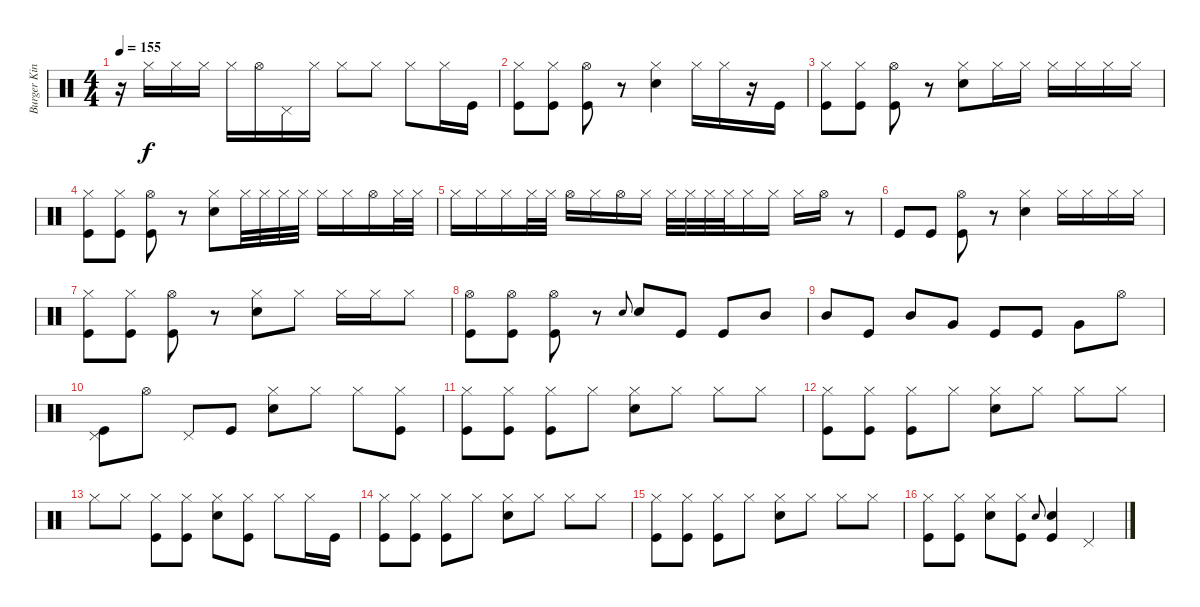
\track ("Burger King" "Burger Kin") {instrument percussion}
\staff {score}
\articulation defaults
\ts (4 4)
\tempo 155
\clef neutral
\ks c
r.16{dy f} "Hi-Hat (closed)".16 "Hi-Hat (closed)".16 "Hi-Hat (closed)".16 "Hi-Hat (closed)".16 "Hi-Hat (open)".16 "Pedal Hi-Hat (hit)".16 "Hi-Hat (closed)".16 "Hi-Hat (closed)".8 "Hi-Hat (closed)".8 "Hi-Hat (closed)".8 "Hi-Hat (closed)".16 "Kick (hit)".16 |
("Hi-Hat (closed)" "Kick (hit)").8 ("Kick (hit)" "Hi-Hat (closed)").8 ("Kick (hit)" "Hi-Hat (open)").8 r.8 ("Snare (hit) 2" "Hi-Hat (closed)").4 "Hi-Hat (closed)".16 "Hi-Hat (closed)".16 r.16 "Kick (hit)".16 |
("Kick (hit)" "Hi-Hat (closed)").8 ("Kick (hit)" "Hi-Hat (closed)").8 ("Kick (hit)" "Hi-Hat (open)").8 r.8 ("Snare (hit) 2" "Hi-Hat (closed)").8 "Hi-Hat (closed)".16 "Hi-Hat (closed)".16 "Hi-Hat (closed)".16 "Hi-Hat (closed)".16 "Hi-Hat (closed)".16 "Hi-Hat (closed)".16 |
("Kick (hit)" "Hi-Hat (closed)").8 ("Kick (hit)" "Hi-Hat (closed)").8 ("Kick (hit)" "Hi-Hat (open)").8 r.8 ("Snare (hit) 2" "Hi-Hat (closed)").8 "Hi-Hat (closed)".32 "Hi-Hat (closed)".32 "Hi-Hat (closed)".32 "Hi-Hat (closed)".32 "Hi-Hat (closed)".16 "Hi-Hat (closed)".16 "Hi-Hat (open)".16 "Hi-Hat (closed)".32 "Hi-Hat (closed)".32 |
"Hi-Hat (closed)".16 "Hi-Hat (closed)".16 "Hi-Hat (closed)".16 "Hi-Hat (closed)".32 "Hi-Hat (closed)".32 "Hi-Hat (open)".16 "Hi-Hat (closed)".16 "Hi-Hat (open)".16 "Hi-Hat (closed)".16 "Hi-Hat (closed)".32 "Hi-Hat (closed)".32 "Hi-Hat (closed)".32 "Hi-Hat (closed)".32 "Hi-Hat (closed)".16 "Hi-Hat (closed)".16 "Hi-Hat (closed)".16 "Hi-Hat (open)".16 r.8 |
"Kick (hit)".8 "Kick (hit)".8 ("Kick (hit)" "Hi-Hat (open)").8 r.8 ("Hi-Hat (closed)" "Snare (hit) 2").4 "Hi-Hat (closed)".16 "Hi-Hat (closed)".16 "Hi-Hat (closed)".16 "Hi-Hat (closed)".16 |
("Hi-Hat (closed)" "Kick (hit)").8 ("Hi-Hat (closed)" "Kick (hit)").8 ("Kick (hit)" "Hi-Hat (open)").8 r.8 ("Snare (hit) 2" "Hi-Hat (closed)").8 "Hi-Hat (closed)".8 "Hi-Hat (closed)".16 "Hi-Hat (closed)".16 "Hi-Hat (closed)".8 |
("Hi-Hat (open)" "Kick (hit)").8 ("Hi-Hat (open)" "Kick (hit)").8 ("Kick (hit)" "Hi-Hat (open)").8 r.8 "Snare (hit) 2".8{gr onbeat} "Snare (hit) 2".8 "Kick (hit)".8 "Kick (hit)".8 "Mid Tom (hit)".8 |
"Mid Tom (hit)".8 "Kick (hit)".8 "Mid Tom (hit)".8 "Very Low Tom (hit)".8 "Kick (hit)".8 "Kick (hit)".8 "Very Low Tom (hit)".8 "Hi-Hat (open)".8 |
("Pedal Hi-Hat (hit)" "Kick (hit)").8 "Hi-Hat (open)".8 "Pedal Hi-Hat (hit)".8 "Kick (hit)".8 ("Hi-Hat (closed)" "Snare (hit) 2").8 "Hi-Hat (closed)".8 "Hi-Hat (closed)".8 ("Hi-Hat (closed)" "Kick (hit)").8 |
("Hi-Hat (closed)" "Kick (hit)").8 ("Hi-Hat (closed)" "Kick (hit)").8 ("Hi-Hat (closed)" "Kick (hit)").8 "Hi-Hat (closed)".8 ("Hi-Hat (closed)" "Snare (hit) 2").8 "Hi-Hat (closed)".8 "Hi-Hat (closed)".8 "Hi-Hat (closed)".8 |
("Hi-Hat (closed)" "Kick (hit)").8 ("Hi-Hat (closed)" "Kick (hit)").8 ("Hi-Hat (closed)" "Kick (hit)").8 "Hi-Hat (closed)".8 ("Hi-Hat (closed)" "Snare (hit) 2").8 "Hi-Hat (closed)".8 "Hi-Hat (closed)".8 "Hi-Hat (closed)".8 |
"Hi-Hat (closed)".8 "Hi-Hat (closed)".8 ("Hi-Hat (closed)" "Kick (hit)").8 ("Hi-Hat (closed)" "Kick (hit)").8 ("Hi-Hat (closed)" "Snare (hit) 2").8 ("Hi-Hat (closed)" "Kick (hit)").8 "Hi-Hat (closed)".8 "Hi-Hat (closed)".16 "Kick (hit)".16 |
("Hi-Hat (closed)" "Kick (hit)").8 ("Hi-Hat (closed)" "Kick (hit)").8 ("Hi-Hat (closed)" "Kick (hit)").8 "Hi-Hat (closed)".8 ("Hi-Hat (closed)" "Snare (hit) 2").8 "Hi-Hat (closed)".8 "Hi-Hat (closed)".8 "Hi-Hat (closed)".8 |
("Hi-Hat (closed)" "Kick (hit)").8 ("Hi-Hat (closed)" "Kick (hit)").8 ("Hi-Hat (closed)" "Kick (hit)").8 "Hi-Hat (closed)".8 ("Hi-Hat (closed)" "Snare (hit) 2").8 "Hi-Hat (closed)".8 "Hi-Hat (closed)".8 "Hi-Hat (closed)".8 |
("Hi-Hat (closed)" "Kick (hit)").8 ("Hi-Hat (closed)" "Kick (hit)").8 ("Hi-Hat (closed)" "Snare (hit) 2").8 ("Hi-Hat (closed)" "Kick (hit)").8 "Snare (hit) 2".8{gr onbeat} ("Snare (hit) 2" "Kick (hit)").4 "Pedal Hi-Hat (hit)".4
